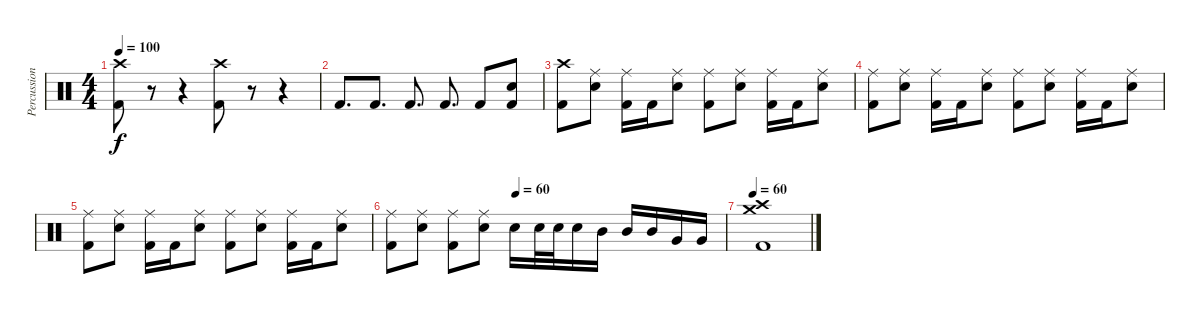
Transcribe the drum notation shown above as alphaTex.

\track ("Percussion" "Percussion") {instrument percussion}
\staff {score}
\articulation defaults
\ts (4 4)
\tempo 100
\clef neutral
\ks c
("Crash high (hit)" "Kick (hit) 2").8{dy f volume 13} r.8{volume 0} r.4 ("Crash high (hit)" "Kick (hit) 2").8{volume 13} r.8{volume 0} r.4 |
"Kick (hit) 2".8{d volume 13} "Kick (hit) 2".8{d} "Kick (hit) 2".8{d} "Kick (hit) 2".8{d} "Kick (hit) 2".8 ("Electric Snare (hit)" "Kick (hit) 2").8 |
("Crash high (hit)" "Kick (hit) 2").8 ("Ride (middle)" "Electric Snare (hit)").8 ("Ride (middle)" "Kick (hit) 2").16 "Kick (hit) 2".16 ("Ride (middle)" "Electric Snare (hit)").8 ("Ride (middle)" "Kick (hit) 2").8 ("Ride (middle)" "Electric Snare (hit)").8 ("Ride (middle)" "Kick (hit) 2").16 "Kick (hit) 2".16 ("Ride (middle)" "Electric Snare (hit)").8 |
("Ride (middle)" "Kick (hit) 2").8 ("Ride (middle)" "Electric Snare (hit)").8 ("Ride (middle)" "Kick (hit) 2").16 "Kick (hit) 2".16 ("Ride (middle)" "Electric Snare (hit)").8 ("Ride (middle)" "Kick (hit) 2").8 ("Ride (middle)" "Electric Snare (hit)").8 ("Ride (middle)" "Kick (hit) 2").16 "Kick (hit) 2".16 ("Ride (middle)" "Electric Snare (hit)").8 |
("Ride (middle)" "Kick (hit) 2").8 ("Ride (middle)" "Electric Snare (hit)").8 ("Ride (middle)" "Kick (hit) 2").16 "Kick (hit) 2".16 ("Ride (middle)" "Electric Snare (hit)").8 ("Ride (middle)" "Kick (hit) 2").8 ("Ride (middle)" "Electric Snare (hit)").8 ("Ride (middle)" "Kick (hit) 2").16 "Kick (hit) 2".16 ("Ride (middle)" "Electric Snare (hit)").8 |
\tempo (60 0.375)
("Ride (middle)" "Kick (hit) 2").8 ("Ride (middle)" "Electric Snare (hit)").8 ("Ride (middle)" "Kick (hit) 2").8 ("Ride (middle)" "Electric Snare (hit)").8 "Electric Snare (hit)".16 "Electric Snare (hit)".32 "Electric Snare (hit)".32 "Electric Snare (hit)".16 "Mid Tom (hit)".16 "Mid Tom (hit)".16 "Mid Tom (hit)".16 "Very Low Tom (hit)".16 "Very Low Tom (hit)".16 |
\tempo 60
("Crash medium (hit)" "Crash high (hit)" "Kick (hit) 2").1
